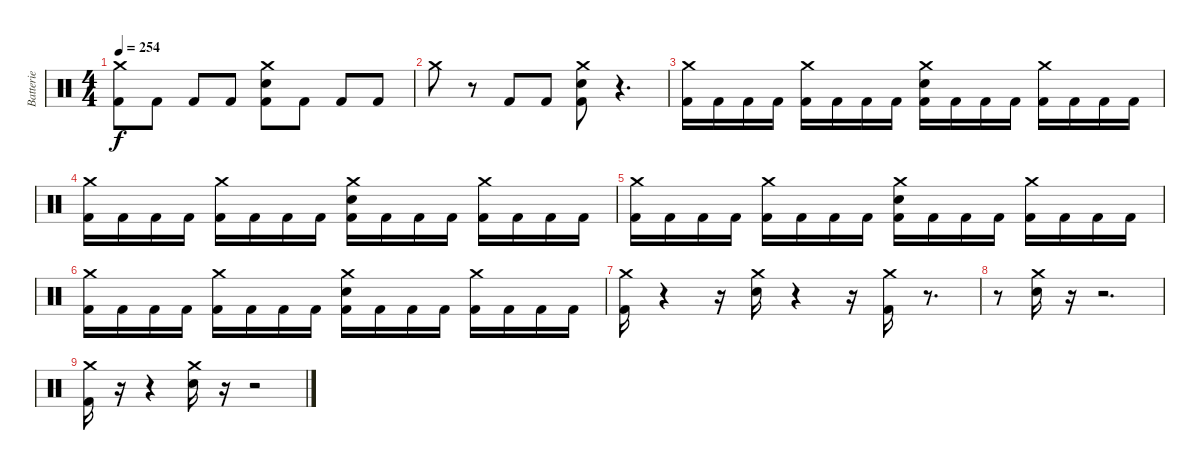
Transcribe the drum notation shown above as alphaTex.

\track ("Batterie" "Batterie") {instrument percussion}
\staff {score}
\articulation defaults
\ts (4 4)
\tempo 254
\clef neutral
\ks c
("Crash medium (hit)" "Kick (hit) 2").8{dy f} "Kick (hit) 2".8 "Kick (hit) 2".8 "Kick (hit) 2".8 ("Crash medium (hit)" "Electric Snare (hit)" "Kick (hit) 2").8 "Kick (hit) 2".8 "Kick (hit) 2".8 "Kick (hit) 2".8 |
"Crash medium (hit)".8 r.8 "Kick (hit) 2".8 "Kick (hit) 2".8 ("Crash medium (hit)" "Electric Snare (hit)" "Kick (hit) 2").8 r.4{d} |
("Crash medium (hit)" "Kick (hit) 2").16 "Kick (hit) 2".16 "Kick (hit) 2".16 "Kick (hit) 2".16 ("Crash medium (hit)" "Kick (hit) 2").16 "Kick (hit) 2".16 "Kick (hit) 2".16 "Kick (hit) 2".16 ("Crash medium (hit)" "Electric Snare (hit)" "Kick (hit) 2").16 "Kick (hit) 2".16 "Kick (hit) 2".16 "Kick (hit) 2".16 ("Crash medium (hit)" "Kick (hit) 2").16 "Kick (hit) 2".16 "Kick (hit) 2".16 "Kick (hit) 2".16 |
("Crash medium (hit)" "Kick (hit) 2").16 "Kick (hit) 2".16 "Kick (hit) 2".16 "Kick (hit) 2".16 ("Crash medium (hit)" "Kick (hit) 2").16 "Kick (hit) 2".16 "Kick (hit) 2".16 "Kick (hit) 2".16 ("Crash medium (hit)" "Electric Snare (hit)" "Kick (hit) 2").16 "Kick (hit) 2".16 "Kick (hit) 2".16 "Kick (hit) 2".16 ("Crash medium (hit)" "Kick (hit) 2").16 "Kick (hit) 2".16 "Kick (hit) 2".16 "Kick (hit) 2".16 |
("Crash medium (hit)" "Kick (hit) 2").16 "Kick (hit) 2".16 "Kick (hit) 2".16 "Kick (hit) 2".16 ("Crash medium (hit)" "Kick (hit) 2").16 "Kick (hit) 2".16 "Kick (hit) 2".16 "Kick (hit) 2".16 ("Crash medium (hit)" "Electric Snare (hit)" "Kick (hit) 2").16 "Kick (hit) 2".16 "Kick (hit) 2".16 "Kick (hit) 2".16 ("Crash medium (hit)" "Kick (hit) 2").16 "Kick (hit) 2".16 "Kick (hit) 2".16 "Kick (hit) 2".16 |
("Crash medium (hit)" "Kick (hit) 2").16 "Kick (hit) 2".16 "Kick (hit) 2".16 "Kick (hit) 2".16 ("Crash medium (hit)" "Kick (hit) 2").16 "Kick (hit) 2".16 "Kick (hit) 2".16 "Kick (hit) 2".16 ("Crash medium (hit)" "Electric Snare (hit)" "Kick (hit) 2").16 "Kick (hit) 2".16 "Kick (hit) 2".16 "Kick (hit) 2".16 ("Crash medium (hit)" "Kick (hit) 2").16 "Kick (hit) 2".16 "Kick (hit) 2".16 "Kick (hit) 2".16 |
("Crash medium (hit)" "Kick (hit) 2").16 r.4 r.16 ("Crash medium (hit)" "Electric Snare (hit)").16 r.4 r.16 ("Crash medium (hit)" "Kick (hit) 2").16 r.8{d} |
r.8 ("Crash medium (hit)" "Electric Snare (hit)").16 r.16 r.2{d} |
("Crash medium (hit)" "Kick (hit) 2").16 r.16 r.4 ("Crash medium (hit)" "Electric Snare (hit)").16 r.16 r.2
